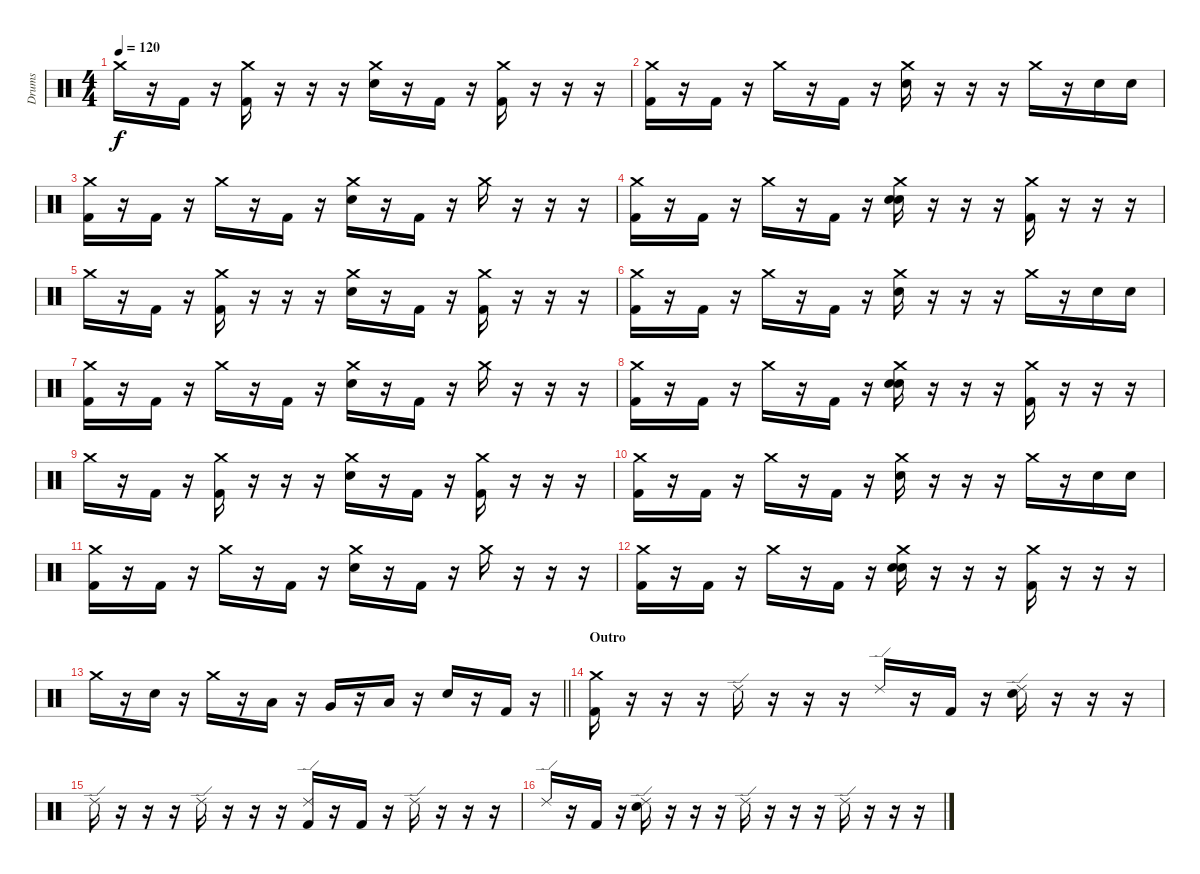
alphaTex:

\track ("Drums" "Drums") {instrument percussion}
\staff {score}
\articulation defaults
\ts (4 4)
\tempo 120
\clef neutral
\ks c "Crash medium (hit)".16{dy f}
r.16 "Kick (hit) 2".16 r.16 ("Crash medium (hit)" "Kick (hit) 2").16 r.16 r.16 r.16 ("Crash medium (hit)" "Electric Snare (hit)").16 r.16 "Kick (hit) 2".16 r.16 ("Crash medium (hit)" "Kick (hit) 2").16 r.16 r.16 r.16 |
("Crash medium (hit)" "Kick (hit) 2").16 r.16 "Kick (hit) 2".16 r.16 "Crash medium (hit)".16 r.16 "Kick (hit) 2".16 r.16 ("Crash medium (hit)" "Electric Snare (hit)").16 r.16 r.16 r.16 "Crash medium (hit)".16 r.16 "Electric Snare (hit)".16 "Electric Snare (hit)".16 |
("Crash medium (hit)" "Kick (hit) 2").16 r.16 "Kick (hit) 2".16 r.16 "Crash medium (hit)".16 r.16 "Kick (hit) 2".16 r.16 ("Crash medium (hit)" "Electric Snare (hit)").16 r.16 "Kick (hit) 2".16 r.16 "Crash medium (hit)".16 r.16 r.16 r.16 |
("Crash medium (hit)" "Kick (hit) 2").16 r.16 "Kick (hit) 2".16 r.16 "Crash medium (hit)".16 r.16 "Kick (hit) 2".16 r.16 ("Electric Snare (hit)" "Crash medium (hit)" "Electric Snare (hit)").16 r.16 r.16 r.16 ("Crash medium (hit)" "Kick (hit) 2").16 r.16 r.16 r.16 |
"Crash medium (hit)".16 r.16 "Kick (hit) 2".16 r.16 ("Crash medium (hit)" "Kick (hit) 2").16 r.16 r.16 r.16 ("Crash medium (hit)" "Electric Snare (hit)").16 r.16 "Kick (hit) 2".16 r.16 ("Crash medium (hit)" "Kick (hit) 2").16 r.16 r.16 r.16 |
("Crash medium (hit)" "Kick (hit) 2").16 r.16 "Kick (hit) 2".16 r.16 "Crash medium (hit)".16 r.16 "Kick (hit) 2".16 r.16 ("Crash medium (hit)" "Electric Snare (hit)").16 r.16 r.16 r.16 "Crash medium (hit)".16 r.16 "Electric Snare (hit)".16 "Electric Snare (hit)".16 |
("Crash medium (hit)" "Kick (hit) 2").16 r.16 "Kick (hit) 2".16 r.16 "Crash medium (hit)".16 r.16 "Kick (hit) 2".16 r.16 ("Crash medium (hit)" "Electric Snare (hit)").16 r.16 "Kick (hit) 2".16 r.16 "Crash medium (hit)".16 r.16 r.16 r.16 |
("Crash medium (hit)" "Kick (hit) 2").16 r.16 "Kick (hit) 2".16 r.16 "Crash medium (hit)".16 r.16 "Kick (hit) 2".16 r.16 ("Electric Snare (hit)" "Crash medium (hit)" "Electric Snare (hit)").16 r.16 r.16 r.16 ("Crash medium (hit)" "Kick (hit) 2").16 r.16 r.16 r.16 |
"Crash medium (hit)".16 r.16 "Kick (hit) 2".16 r.16 ("Crash medium (hit)" "Kick (hit) 2").16 r.16 r.16 r.16 ("Crash medium (hit)" "Electric Snare (hit)").16 r.16 "Kick (hit) 2".16 r.16 ("Crash medium (hit)" "Kick (hit) 2").16 r.16 r.16 r.16 |
("Crash medium (hit)" "Kick (hit) 2").16 r.16 "Kick (hit) 2".16 r.16 "Crash medium (hit)".16 r.16 "Kick (hit) 2".16 r.16 ("Crash medium (hit)" "Electric Snare (hit)").16 r.16 r.16 r.16 "Crash medium (hit)".16 r.16 "Electric Snare (hit)".16 "Electric Snare (hit)".16 |
("Crash medium (hit)" "Kick (hit) 2").16 r.16 "Kick (hit) 2".16 r.16 "Crash medium (hit)".16 r.16 "Kick (hit) 2".16 r.16 ("Crash medium (hit)" "Electric Snare (hit)").16 r.16 "Kick (hit) 2".16 r.16 "Crash medium (hit)".16 r.16 r.16 r.16 |
("Crash medium (hit)" "Kick (hit) 2").16 r.16 "Kick (hit) 2".16 r.16 "Crash medium (hit)".16 r.16 "Kick (hit) 2".16 r.16 ("Electric Snare (hit)" "Crash medium (hit)" "Electric Snare (hit)").16 r.16 r.16 r.16 ("Crash medium (hit)" "Kick (hit) 2").16 r.16 r.16 r.16 |
\barLineRight lightlight "Crash medium (hit)".16
r.16 "Electric Snare (hit)".16 r.16 "Crash medium (hit)".16 r.16 "Low Tom (hit)".16 r.16 "Very Low Tom (hit)".16 r.16 "Low Floor Tom (hit)".16 r.16 "Electric Snare (hit)".16 r.16 "Kick (hit) 2".16 r.16 |
\section ("" "Outro")
("Crash medium (hit)" "Kick (hit) 2").16 r.16 r.16 r.16 "Ride (edge) 2".16 r.16 r.16 r.16 "Ride (edge) 2".16 r.16 "Kick (hit) 2".16 r.16 ("Ride (edge) 2" "Electric Snare (hit)").16 r.16 r.16 r.16 |
"Ride (edge) 2".16 r.16 r.16 r.16 "Ride (edge) 2".16 r.16 r.16 r.16 ("Ride (edge) 2" "Kick (hit) 2").16 r.16 "Kick (hit) 2".16 r.16 "Ride (edge) 2".16 r.16 r.16 r.16 |
"Ride (edge) 2".16 r.16 "Kick (hit) 2".16 r.16 ("Ride (edge) 2" "Electric Snare (hit)").16 r.16 r.16 r.16 "Ride (edge) 2".16 r.16 r.16 r.16 "Ride (edge) 2".16 r.16 r.16 r.16
